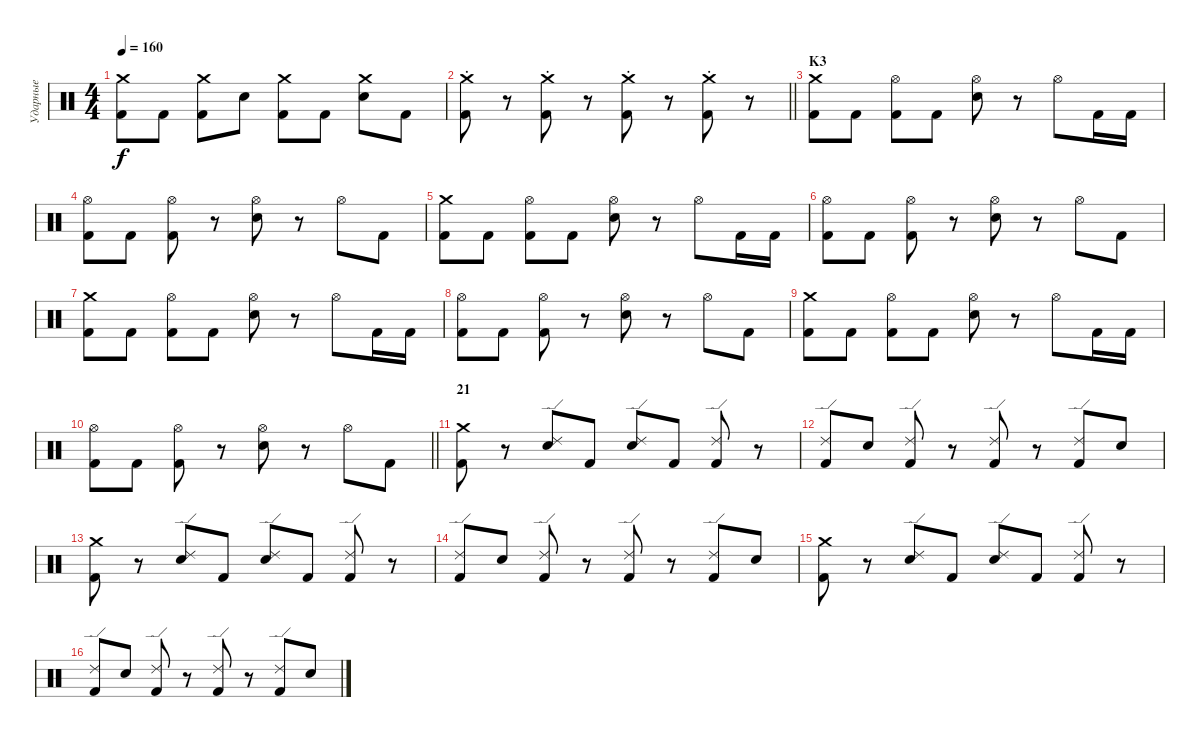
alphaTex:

\track ("Ударные" "Ударные") {instrument percussion}
\staff {score}
\articulation defaults
\ts (4 4)
\tempo 160
\clef neutral
\ks c
("Kick (hit) 2" "Crash medium (hit)").8{dy f} "Kick (hit) 2".8 ("Kick (hit) 2" "Crash medium (hit)").8 "Snare (hit) 2".8 ("Kick (hit) 2" "Crash medium (hit)").8 "Kick (hit) 2".8 ("Snare (hit) 2" "Crash medium (hit)").8 "Kick (hit) 2".8 |
\barLineRight lightlight
("Crash medium (hit)"{st} "Kick (hit) 2"{st}).8 r.8 ("Crash medium (hit)"{st} "Kick (hit) 2"{st}).8 r.8 ("Crash medium (hit)"{st} "Kick (hit) 2"{st}).8 r.8 ("Crash medium (hit)"{st} "Kick (hit) 2"{st}).8 r.8 |
\section ("" "K3")
("Kick (hit) 2" "Crash medium (hit)").8 "Kick (hit) 2".8 ("Kick (hit) 2" "Hi-Hat (open)").8 "Kick (hit) 2".8 ("Snare (hit) 2" "Hi-Hat (open)").8 r.8 "Hi-Hat (open)".8 "Kick (hit) 2".16 "Kick (hit) 2".16 |
("Kick (hit) 2" "Hi-Hat (open)").8 "Kick (hit) 2".8 ("Kick (hit) 2" "Hi-Hat (open)").8 r.8 ("Snare (hit) 2" "Hi-Hat (open)").8 r.8 "Hi-Hat (open)".8 "Kick (hit) 2".8 |
("Kick (hit) 2" "Crash medium (hit)").8 "Kick (hit) 2".8 ("Kick (hit) 2" "Hi-Hat (open)").8 "Kick (hit) 2".8 ("Snare (hit) 2" "Hi-Hat (open)").8 r.8 "Hi-Hat (open)".8 "Kick (hit) 2".16 "Kick (hit) 2".16 |
("Kick (hit) 2" "Hi-Hat (open)").8 "Kick (hit) 2".8 ("Kick (hit) 2" "Hi-Hat (open)").8 r.8 ("Snare (hit) 2" "Hi-Hat (open)").8 r.8 "Hi-Hat (open)".8 "Kick (hit) 2".8 |
("Kick (hit) 2" "Crash medium (hit)").8 "Kick (hit) 2".8 ("Kick (hit) 2" "Hi-Hat (open)").8 "Kick (hit) 2".8 ("Snare (hit) 2" "Hi-Hat (open)").8 r.8 "Hi-Hat (open)".8 "Kick (hit) 2".16 "Kick (hit) 2".16 |
("Kick (hit) 2" "Hi-Hat (open)").8 "Kick (hit) 2".8 ("Kick (hit) 2" "Hi-Hat (open)").8 r.8 ("Snare (hit) 2" "Hi-Hat (open)").8 r.8 "Hi-Hat (open)".8 "Kick (hit) 2".8 |
("Kick (hit) 2" "Crash medium (hit)").8 "Kick (hit) 2".8 ("Kick (hit) 2" "Hi-Hat (open)").8 "Kick (hit) 2".8 ("Snare (hit) 2" "Hi-Hat (open)").8 r.8 "Hi-Hat (open)".8 "Kick (hit) 2".16 "Kick (hit) 2".16 |
\barLineRight lightlight
("Kick (hit) 2" "Hi-Hat (open)").8 "Kick (hit) 2".8 ("Kick (hit) 2" "Hi-Hat (open)").8 r.8 ("Snare (hit) 2" "Hi-Hat (open)").8 r.8 "Hi-Hat (open)".8 "Kick (hit) 2".8 |
\section ("" "21")
("Crash medium (hit)" "Kick (hit) 2").8 r.8 ("Snare (hit) 2" "Ride (edge) 2").8 "Kick (hit) 2".8 ("Snare (hit) 2" "Ride (edge) 2").8 "Kick (hit) 2".8 ("Kick (hit) 2" "Ride (edge) 2").8 r.8 |
("Kick (hit) 2" "Ride (edge) 2").8 "Snare (hit) 2".8 ("Kick (hit) 2" "Ride (edge) 2").8 r.8 ("Kick (hit) 2" "Ride (edge) 2").8 r.8 ("Kick (hit) 2" "Ride (edge) 2").8 "Snare (hit) 2".8 |
("Crash medium (hit)" "Kick (hit) 2").8 r.8 ("Snare (hit) 2" "Ride (edge) 2").8 "Kick (hit) 2".8 ("Snare (hit) 2" "Ride (edge) 2").8 "Kick (hit) 2".8 ("Kick (hit) 2" "Ride (edge) 2").8 r.8 |
("Kick (hit) 2" "Ride (edge) 2").8 "Snare (hit) 2".8 ("Kick (hit) 2" "Ride (edge) 2").8 r.8 ("Kick (hit) 2" "Ride (edge) 2").8 r.8 ("Kick (hit) 2" "Ride (edge) 2").8 "Snare (hit) 2".8 |
("Crash medium (hit)" "Kick (hit) 2").8 r.8 ("Snare (hit) 2" "Ride (edge) 2").8 "Kick (hit) 2".8 ("Snare (hit) 2" "Ride (edge) 2").8 "Kick (hit) 2".8 ("Kick (hit) 2" "Ride (edge) 2").8 r.8 |
("Kick (hit) 2" "Ride (edge) 2").8 "Snare (hit) 2".8 ("Kick (hit) 2" "Ride (edge) 2").8 r.8 ("Kick (hit) 2" "Ride (edge) 2").8 r.8 ("Kick (hit) 2" "Ride (edge) 2").8 "Snare (hit) 2".8
